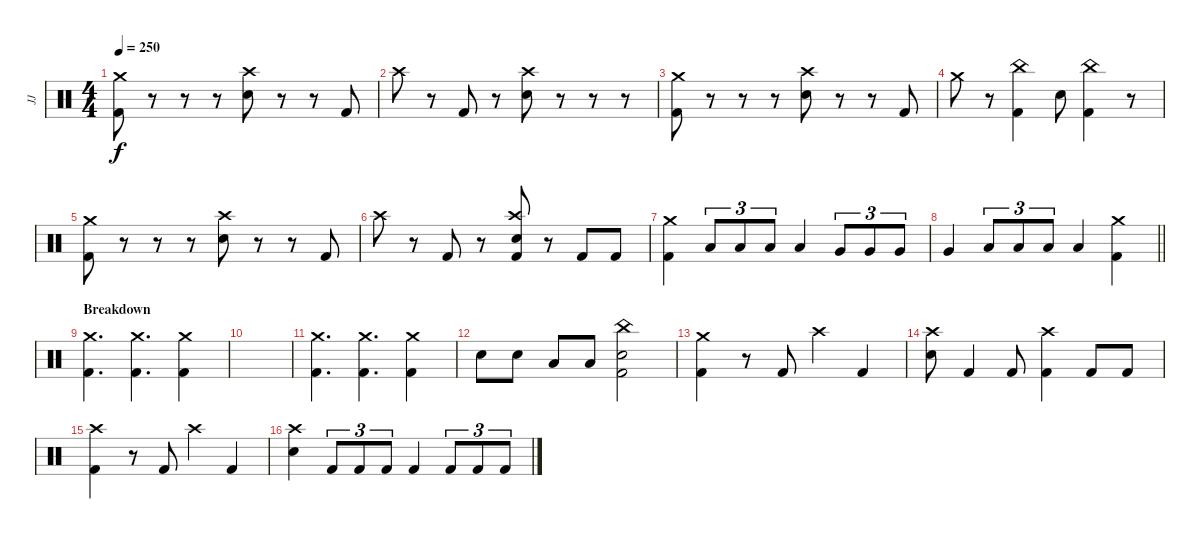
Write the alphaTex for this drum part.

\track ("JJ" "JJ") {instrument percussion}
\staff {score}
\articulation defaults
\ts (4 4)
\tempo 250
\clef neutral
\ks c
("Crash medium (hit)" "Kick (hit) 2").8{dy f} r.8 r.8 r.8 ("Crash high (hit)" "Electric Snare (hit)").8 r.8 r.8 "Kick (hit) 2".8 |
"Crash high (hit)".8 r.8 "Kick (hit) 2".8 r.8 ("Crash high (hit)" "Electric Snare (hit)").8 r.8 r.8 r.8 |
("Crash medium (hit)" "Kick (hit) 2").8 r.8 r.8 r.8 ("Crash high (hit)" "Electric Snare (hit)").8 r.8 r.8 "Kick (hit) 2".8 |
"Crash medium (hit)".8 r.8 ("China (hit)" "Kick (hit) 2").4 "Electric Snare (hit)".8 ("China (hit)" "Kick (hit) 2").4 r.8 |
("Crash medium (hit)" "Kick (hit) 2").8 r.8 r.8 r.8 ("Crash high (hit)" "Electric Snare (hit)").8 r.8 r.8 "Kick (hit) 2".8 |
"Crash high (hit)".8 r.8 "Kick (hit) 2".8 r.8 ("Crash high (hit)" "Electric Snare (hit)" "Kick (hit) 2").8 r.8 "Kick (hit) 2".8 "Kick (hit) 2".8 |
("Crash medium (hit)" "Kick (hit) 2").4 "Low Floor Tom (hit)".8{tu (3 2)} "Low Floor Tom (hit)".8{tu (3 2)} "Low Floor Tom (hit)".8{tu (3 2)} "Low Floor Tom (hit)".4 "Very Low Tom (hit)".8{tu (3 2)} "Very Low Tom (hit)".8{tu (3 2)} "Very Low Tom (hit)".8{tu (3 2)} |
\barLineRight lightlight "Very Low Tom (hit)".4 "Low Floor Tom (hit)".8{tu (3 2)} "Low Floor Tom (hit)".8{tu (3 2)} "Low Floor Tom (hit)".8{tu (3 2)} "Low Floor Tom (hit)".4
("Crash medium (hit)" "Kick (hit) 2").4 |
\section ("" "Breakdown")
("Crash medium (hit)" "Kick (hit) 2").4{d} ("Crash medium (hit)" "Kick (hit) 2").4{d} ("Crash medium (hit)" "Kick (hit) 2").4 |
|
("Crash medium (hit)" "Kick (hit) 2").4{d} ("Crash medium (hit)" "Kick (hit) 2").4{d} ("Crash medium (hit)" "Kick (hit) 2").4 |
"Electric Snare (hit)".8 "Electric Snare (hit)".8 "Low Floor Tom (hit)".8 "Low Floor Tom (hit)".8 ("China (hit)" "Electric Snare (hit)" "Kick (hit) 2").2 |
("Crash medium (hit)" "Kick (hit) 2").4 r.8 "Kick (hit) 2".8 "Crash high (hit)".4 "Kick (hit) 2".4 |
("Crash high (hit)" "Electric Snare (hit)").8 "Kick (hit) 2".4 "Kick (hit) 2".8 ("Crash high (hit)" "Kick (hit) 2").4 "Kick (hit) 2".8 "Kick (hit) 2".8 |
("Crash high (hit)" "Kick (hit) 2").4 r.8 "Kick (hit) 2".8 "Crash high (hit)".4 "Kick (hit) 2".4 |
("Crash high (hit)" "Electric Snare (hit)").4 "Kick (hit) 2".8{tu (3 2)} "Kick (hit) 2".8{tu (3 2)} "Kick (hit) 2".8{tu (3 2)} "Kick (hit) 2".4 "Kick (hit) 2".8{tu (3 2)} "Kick (hit) 2".8{tu (3 2)} "Kick (hit) 2".8{tu (3 2)}
